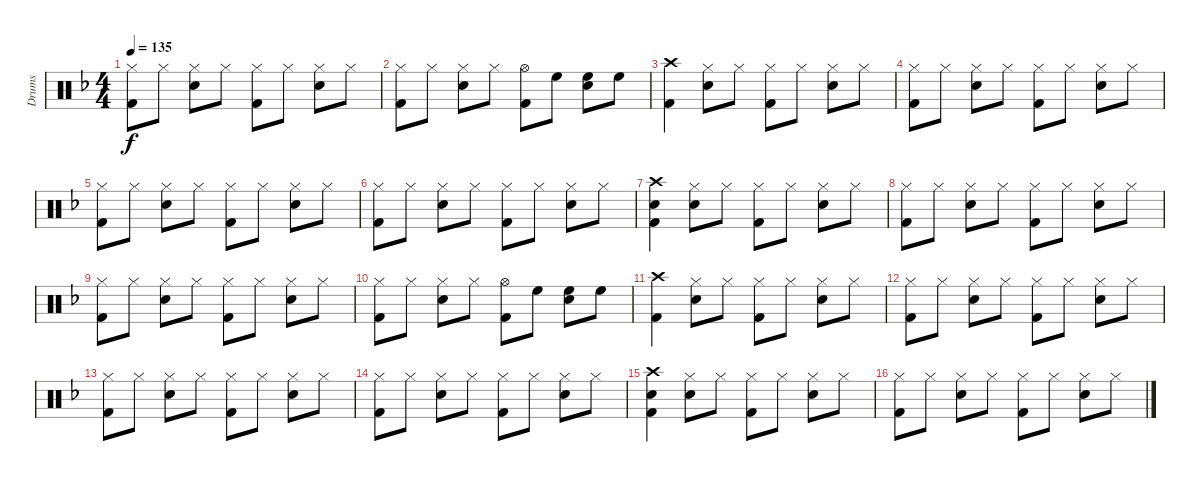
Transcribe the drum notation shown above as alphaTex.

\track ("Drums" "Drums") {instrument percussion}
\staff {score}
\articulation defaults
\ts (4 4)
\tempo 135
\clef neutral
\ks f
("Hi-Hat (closed)" "Kick (hit) 2").8{dy f} "Hi-Hat (closed)".8 ("Hi-Hat (closed)" "Snare (hit) 2").8 "Hi-Hat (closed)".8 ("Hi-Hat (closed)" "Kick (hit) 2").8 "Hi-Hat (closed)".8 ("Hi-Hat (closed)" "Snare (hit) 2").8 "Hi-Hat (closed)".8 |
("Hi-Hat (closed)" "Kick (hit) 2").8 "Hi-Hat (closed)".8 ("Hi-Hat (closed)" "Snare (hit) 2").8 "Hi-Hat (closed)".8 ("Hi-Hat (open)" "Kick (hit) 2").8 "High Floor Tom (hit)".8 ("High Floor Tom (hit)" "Snare (hit) 2").8 "High Floor Tom (hit)".8 |
("Crash high (hit)" "Kick (hit) 2").4 ("Hi-Hat (closed)" "Snare (hit) 2").8 "Hi-Hat (closed)".8 ("Hi-Hat (closed)" "Kick (hit) 2").8 "Hi-Hat (closed)".8 ("Hi-Hat (closed)" "Snare (hit) 2").8 "Hi-Hat (closed)".8 |
("Hi-Hat (closed)" "Kick (hit) 2").8 "Hi-Hat (closed)".8 ("Hi-Hat (closed)" "Snare (hit) 2").8 "Hi-Hat (closed)".8 ("Hi-Hat (closed)" "Kick (hit) 2").8 "Hi-Hat (closed)".8 ("Hi-Hat (closed)" "Snare (hit) 2").8 "Hi-Hat (closed)".8 |
("Hi-Hat (closed)" "Kick (hit) 2").8 "Hi-Hat (closed)".8 ("Hi-Hat (closed)" "Snare (hit) 2").8 "Hi-Hat (closed)".8 ("Hi-Hat (closed)" "Kick (hit) 2").8 "Hi-Hat (closed)".8 ("Hi-Hat (closed)" "Snare (hit) 2").8 "Hi-Hat (closed)".8 |
("Hi-Hat (closed)" "Kick (hit) 2").8 "Hi-Hat (closed)".8 ("Hi-Hat (closed)" "Snare (hit) 2").8 "Hi-Hat (closed)".8 ("Hi-Hat (closed)" "Kick (hit) 2").8 "Hi-Hat (closed)".8 ("Hi-Hat (closed)" "Snare (hit) 2").8 "Hi-Hat (closed)".8 |
("Crash high (hit)" "Snare (hit) 2" "Kick (hit) 2").4 ("Hi-Hat (closed)" "Snare (hit) 2").8 "Hi-Hat (closed)".8 ("Hi-Hat (closed)" "Kick (hit) 2").8 "Hi-Hat (closed)".8 ("Hi-Hat (closed)" "Snare (hit) 2").8 "Hi-Hat (closed)".8 |
("Hi-Hat (closed)" "Kick (hit) 2").8 "Hi-Hat (closed)".8 ("Hi-Hat (closed)" "Snare (hit) 2").8 "Hi-Hat (closed)".8 ("Hi-Hat (closed)" "Kick (hit) 2").8 "Hi-Hat (closed)".8 ("Hi-Hat (closed)" "Snare (hit) 2").8 "Hi-Hat (closed)".8 |
("Hi-Hat (closed)" "Kick (hit) 2").8 "Hi-Hat (closed)".8 ("Hi-Hat (closed)" "Snare (hit) 2").8 "Hi-Hat (closed)".8 ("Hi-Hat (closed)" "Kick (hit) 2").8 "Hi-Hat (closed)".8 ("Hi-Hat (closed)" "Snare (hit) 2").8 "Hi-Hat (closed)".8 |
("Hi-Hat (closed)" "Kick (hit) 2").8 "Hi-Hat (closed)".8 ("Hi-Hat (closed)" "Snare (hit) 2").8 "Hi-Hat (closed)".8 ("Hi-Hat (open)" "Kick (hit) 2").8 "High Floor Tom (hit)".8 ("High Floor Tom (hit)" "Snare (hit) 2").8 "High Floor Tom (hit)".8 |
("Crash high (hit)" "Kick (hit) 2").4 ("Hi-Hat (closed)" "Snare (hit) 2").8 "Hi-Hat (closed)".8 ("Hi-Hat (closed)" "Kick (hit) 2").8 "Hi-Hat (closed)".8 ("Hi-Hat (closed)" "Snare (hit) 2").8 "Hi-Hat (closed)".8 |
("Hi-Hat (closed)" "Kick (hit) 2").8 "Hi-Hat (closed)".8 ("Hi-Hat (closed)" "Snare (hit) 2").8 "Hi-Hat (closed)".8 ("Hi-Hat (closed)" "Kick (hit) 2").8 "Hi-Hat (closed)".8 ("Hi-Hat (closed)" "Snare (hit) 2").8 "Hi-Hat (closed)".8 |
("Hi-Hat (closed)" "Kick (hit) 2").8 "Hi-Hat (closed)".8 ("Hi-Hat (closed)" "Snare (hit) 2").8 "Hi-Hat (closed)".8 ("Hi-Hat (closed)" "Kick (hit) 2").8 "Hi-Hat (closed)".8 ("Hi-Hat (closed)" "Snare (hit) 2").8 "Hi-Hat (closed)".8 |
("Hi-Hat (closed)" "Kick (hit) 2").8 "Hi-Hat (closed)".8 ("Hi-Hat (closed)" "Snare (hit) 2").8 "Hi-Hat (closed)".8 ("Hi-Hat (closed)" "Kick (hit) 2").8 "Hi-Hat (closed)".8 ("Hi-Hat (closed)" "Snare (hit) 2").8 "Hi-Hat (closed)".8 |
("Crash high (hit)" "Snare (hit) 2" "Kick (hit) 2").4 ("Hi-Hat (closed)" "Snare (hit) 2").8 "Hi-Hat (closed)".8 ("Hi-Hat (closed)" "Kick (hit) 2").8 "Hi-Hat (closed)".8 ("Hi-Hat (closed)" "Snare (hit) 2").8 "Hi-Hat (closed)".8 |
("Hi-Hat (closed)" "Kick (hit) 2").8 "Hi-Hat (closed)".8 ("Hi-Hat (closed)" "Snare (hit) 2").8 "Hi-Hat (closed)".8 ("Hi-Hat (closed)" "Kick (hit) 2").8 "Hi-Hat (closed)".8 ("Hi-Hat (closed)" "Snare (hit) 2").8 "Hi-Hat (closed)".8
